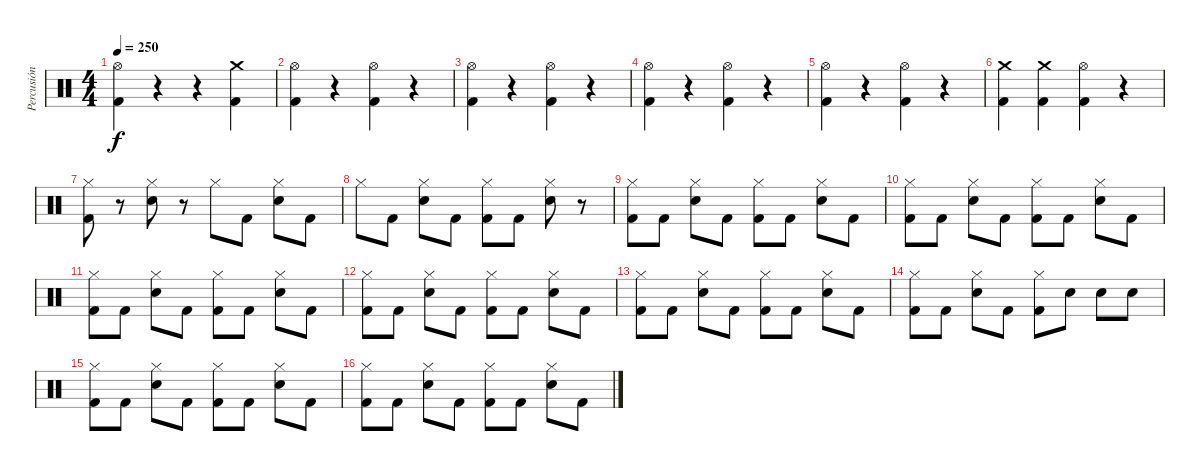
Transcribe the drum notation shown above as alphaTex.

\track ("Percusión" "Percusión") {instrument percussion}
\staff {score}
\articulation defaults
\ts (4 4)
\tempo 250
\clef neutral
\ks c
("Hi-Hat (open)" "Kick (hit) 2").4{dy f} r.4 r.4 ("Crash medium (hit)" "Kick (hit) 2").4 |
("Hi-Hat (open)" "Kick (hit) 2").4 r.4 ("Hi-Hat (open)" "Kick (hit) 2").4 r.4 |
("Hi-Hat (open)" "Kick (hit) 2").4 r.4 ("Hi-Hat (open)" "Kick (hit) 2").4 r.4 |
("Hi-Hat (open)" "Kick (hit) 2").4 r.4 ("Hi-Hat (open)" "Kick (hit) 2").4 r.4 |
("Hi-Hat (open)" "Kick (hit) 2").4 r.4 ("Hi-Hat (open)" "Kick (hit) 2").4 r.4 |
("Crash medium (hit)" "Kick (hit) 2").4 ("Crash medium (hit)" "Kick (hit) 2").4 ("Hi-Hat (open)" "Kick (hit) 2").4 r.4 |
("Hi-Hat (closed)" "Kick (hit) 2").8 r.8 ("Electric Snare (hit)" "Hi-Hat (closed)").8 r.8 "Hi-Hat (closed)".8 "Kick (hit) 2".8 ("Electric Snare (hit)" "Hi-Hat (closed)").8 "Kick (hit) 2".8 |
"Hi-Hat (closed)".8 "Kick (hit) 2".8 ("Electric Snare (hit)" "Hi-Hat (closed)").8 "Kick (hit) 2".8 ("Hi-Hat (closed)" "Kick (hit) 2").8 "Kick (hit) 2".8 ("Electric Snare (hit)" "Hi-Hat (closed)").8 r.8 |
("Hi-Hat (closed)" "Kick (hit) 2").8 "Kick (hit) 2".8 ("Electric Snare (hit)" "Hi-Hat (closed)").8 "Kick (hit) 2".8 ("Hi-Hat (closed)" "Kick (hit) 2").8 "Kick (hit) 2".8 ("Electric Snare (hit)" "Hi-Hat (closed)").8 "Kick (hit) 2".8 |
("Hi-Hat (closed)" "Kick (hit) 2").8 "Kick (hit) 2".8 ("Electric Snare (hit)" "Hi-Hat (closed)").8 "Kick (hit) 2".8 ("Hi-Hat (closed)" "Kick (hit) 2").8 "Kick (hit) 2".8 ("Electric Snare (hit)" "Hi-Hat (closed)").8 "Kick (hit) 2".8 |
("Hi-Hat (closed)" "Kick (hit) 2").8 "Kick (hit) 2".8 ("Electric Snare (hit)" "Hi-Hat (closed)").8 "Kick (hit) 2".8 ("Hi-Hat (closed)" "Kick (hit) 2").8 "Kick (hit) 2".8 ("Electric Snare (hit)" "Hi-Hat (closed)").8 "Kick (hit) 2".8 |
("Hi-Hat (closed)" "Kick (hit) 2").8 "Kick (hit) 2".8 ("Electric Snare (hit)" "Hi-Hat (closed)").8 "Kick (hit) 2".8 ("Hi-Hat (closed)" "Kick (hit) 2").8 "Kick (hit) 2".8 ("Electric Snare (hit)" "Hi-Hat (closed)").8 "Kick (hit) 2".8 |
("Hi-Hat (closed)" "Kick (hit) 2").8 "Kick (hit) 2".8 ("Electric Snare (hit)" "Hi-Hat (closed)").8 "Kick (hit) 2".8 ("Hi-Hat (closed)" "Kick (hit) 2").8 "Kick (hit) 2".8 ("Electric Snare (hit)" "Hi-Hat (closed)").8 "Kick (hit) 2".8 |
("Hi-Hat (closed)" "Kick (hit) 2").8 "Kick (hit) 2".8 ("Hi-Hat (closed)" "Electric Snare (hit)").8 "Kick (hit) 2".8 ("Hi-Hat (closed)" "Kick (hit) 2").8 "Electric Snare (hit)".8 "Electric Snare (hit)".8 "Electric Snare (hit)".8 |
("Hi-Hat (closed)" "Kick (hit) 2").8 "Kick (hit) 2".8 ("Electric Snare (hit)" "Hi-Hat (closed)").8 "Kick (hit) 2".8 ("Hi-Hat (closed)" "Kick (hit) 2").8 "Kick (hit) 2".8 ("Electric Snare (hit)" "Hi-Hat (closed)").8 "Kick (hit) 2".8 |
("Hi-Hat (closed)" "Kick (hit) 2").8 "Kick (hit) 2".8 ("Electric Snare (hit)" "Hi-Hat (closed)").8 "Kick (hit) 2".8 ("Hi-Hat (closed)" "Kick (hit) 2").8 "Kick (hit) 2".8 ("Electric Snare (hit)" "Hi-Hat (closed)").8 "Kick (hit) 2".8
